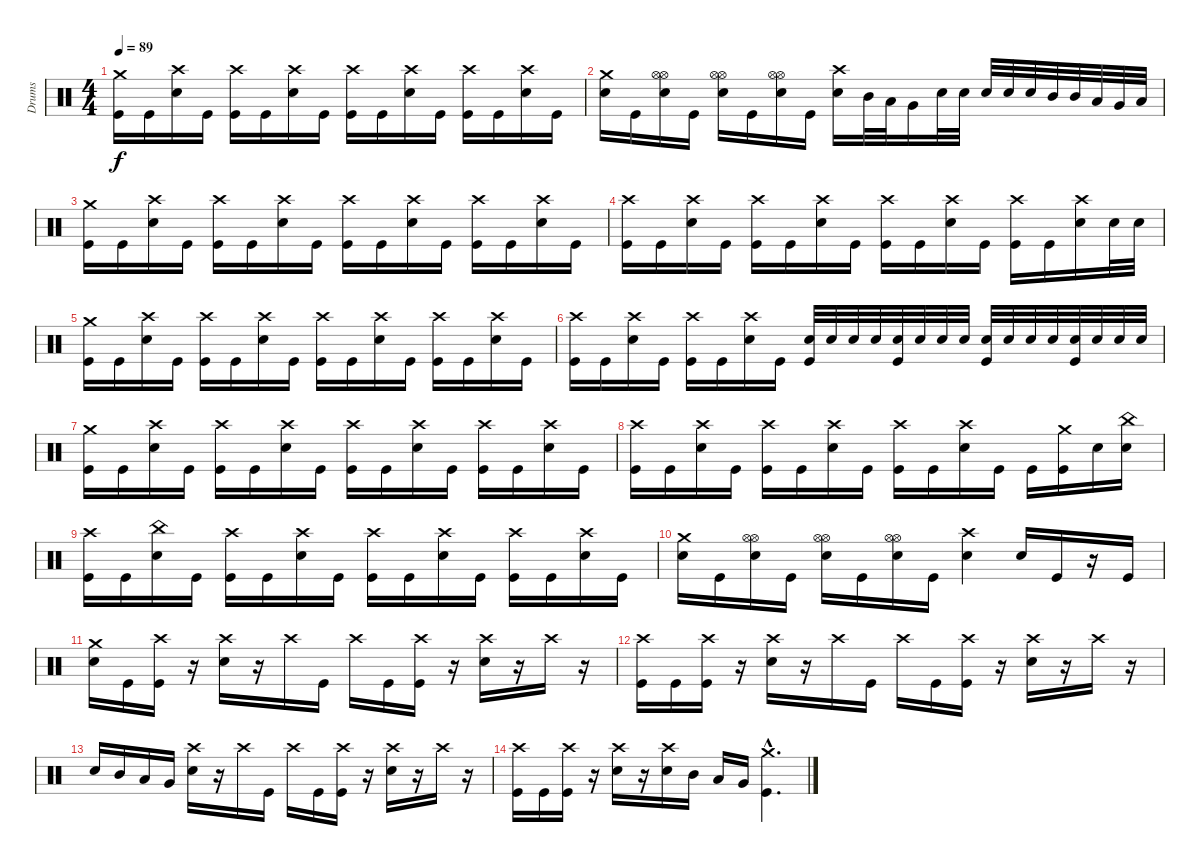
\track ("Drums" "Drums") {instrument percussion}
\staff {score}
\articulation defaults
\ts (4 4)
\tempo 89
\clef neutral
\ks c
("Crash medium (hit)" "Kick (hit)").16{dy f} "Kick (hit)".16 ("Crash high (hit)" "Electric Snare (hit)").16 "Kick (hit)".16 ("Crash high (hit)" "Kick (hit)").16 "Kick (hit)".16 ("Crash high (hit)" "Electric Snare (hit)").16 "Kick (hit)".16 ("Crash high (hit)" "Kick (hit)").16 "Kick (hit)".16 ("Crash high (hit)" "Electric Snare (hit)").16 "Kick (hit)".16 ("Crash high (hit)" "Kick (hit)").16 "Kick (hit)".16 ("Crash high (hit)" "Electric Snare (hit)").16 "Kick (hit)".16 |
("Crash medium (hit)" "Snare (hit) 2").16 "Kick (hit)".16 ("Hi-Hat (open)" "Electric Snare (hit)" "Hi-Hat (open)").16 "Kick (hit)".16 ("Hi-Hat (open)" "Electric Snare (hit)" "Hi-Hat (open)").16 "Kick (hit)".16 ("Hi-Hat (open)" "Electric Snare (hit)" "Hi-Hat (open)").16 "Kick (hit)".16 ("Crash high (hit)" "Electric Snare (hit)").16 "Mid Tom (hit)".32 "Low Tom (hit)".32 "Very Low Tom (hit)".16 "Electric Snare (hit)".32 "Electric Snare (hit)".32 "Electric Snare (hit)".32 "Electric Snare (hit)".32 "Electric Snare (hit)".32 "Mid Tom (hit)".32 "Mid Tom (hit)".32 "Low Tom (hit)".32 "Very Low Tom (hit)".32 "Low Floor Tom (hit)".32 |
("Crash medium (hit)" "Kick (hit)").16 "Kick (hit)".16 ("Crash high (hit)" "Electric Snare (hit)").16 "Kick (hit)".16 ("Crash high (hit)" "Kick (hit)").16 "Kick (hit)".16 ("Crash high (hit)" "Electric Snare (hit)").16 "Kick (hit)".16 ("Crash high (hit)" "Kick (hit)").16 "Kick (hit)".16 ("Crash high (hit)" "Electric Snare (hit)").16 "Kick (hit)".16 ("Crash high (hit)" "Kick (hit)").16 "Kick (hit)".16 ("Crash high (hit)" "Electric Snare (hit)").16 "Kick (hit)".16 |
("Crash high (hit)" "Kick (hit)").16 "Kick (hit)".16 ("Crash high (hit)" "Electric Snare (hit)").16 "Kick (hit)".16 ("Crash high (hit)" "Kick (hit)").16 "Kick (hit)".16 ("Crash high (hit)" "Electric Snare (hit)").16 "Kick (hit)".16 ("Crash high (hit)" "Kick (hit)").16 "Kick (hit)".16 ("Crash high (hit)" "Electric Snare (hit)").16 "Kick (hit)".16 ("Crash high (hit)" "Kick (hit)").16 "Kick (hit)".16 ("Crash high (hit)" "Electric Snare (hit)").16 "Electric Snare (hit)".32 "Electric Snare (hit)".32 |
("Crash medium (hit)" "Kick (hit)").16 "Kick (hit)".16 ("Crash high (hit)" "Electric Snare (hit)").16 "Kick (hit)".16 ("Crash high (hit)" "Kick (hit)").16 "Kick (hit)".16 ("Crash high (hit)" "Electric Snare (hit)").16 "Kick (hit)".16 ("Crash high (hit)" "Kick (hit)").16 "Kick (hit)".16 ("Crash high (hit)" "Electric Snare (hit)").16 "Kick (hit)".16 ("Crash high (hit)" "Kick (hit)").16 "Kick (hit)".16 ("Crash high (hit)" "Electric Snare (hit)").16 "Kick (hit)".16 |
("Crash high (hit)" "Kick (hit)").16 "Kick (hit)".16 ("Crash high (hit)" "Electric Snare (hit)").16 "Kick (hit)".16 ("Crash high (hit)" "Kick (hit)").16 "Kick (hit)".16 ("Crash high (hit)" "Electric Snare (hit)").16 "Kick (hit)".16 ("Electric Snare (hit)" "Kick (hit)").32 "Electric Snare (hit)".32 "Electric Snare (hit)".32 "Electric Snare (hit)".32 ("Electric Snare (hit)" "Kick (hit)").32 "Electric Snare (hit)".32 "Electric Snare (hit)".32 "Electric Snare (hit)".32 ("Electric Snare (hit)" "Kick (hit)").32 "Electric Snare (hit)".32 "Electric Snare (hit)".32 "Electric Snare (hit)".32 ("Electric Snare (hit)" "Kick (hit)").32 "Electric Snare (hit)".32 "Electric Snare (hit)".32 "Electric Snare (hit)".32 |
("Crash medium (hit)" "Kick (hit)").16 "Kick (hit)".16 ("Crash high (hit)" "Electric Snare (hit)").16 "Kick (hit)".16 ("Crash high (hit)" "Kick (hit)").16 "Kick (hit)".16 ("Crash high (hit)" "Electric Snare (hit)").16 "Kick (hit)".16 ("Crash high (hit)" "Kick (hit)").16 "Kick (hit)".16 ("Crash high (hit)" "Electric Snare (hit)").16 "Kick (hit)".16 ("Crash high (hit)" "Kick (hit)").16 "Kick (hit)".16 ("Crash high (hit)" "Electric Snare (hit)").16 "Kick (hit)".16 |
("Crash high (hit)" "Kick (hit)").16 "Kick (hit)".16 ("Crash high (hit)" "Electric Snare (hit)").16 "Kick (hit)".16 ("Crash high (hit)" "Kick (hit)").16 "Kick (hit)".16 ("Crash high (hit)" "Electric Snare (hit)").16 "Kick (hit)".16 ("Crash high (hit)" "Kick (hit)").16 "Kick (hit)".16 ("Crash high (hit)" "Electric Snare (hit)").16 "Kick (hit)".16 "Kick (hit)".16 ("Crash medium (hit)" "Kick (hit)").16 "Snare (hit) 2".16 ("China (hit)" "Electric Snare (hit)").16 |
("Crash high (hit)" "Kick (hit)").16 "Kick (hit)".16 ("China (hit)" "Electric Snare (hit)").16 "Kick (hit)".16 ("Crash high (hit)" "Kick (hit)").16 "Kick (hit)".16 ("Crash high (hit)" "Electric Snare (hit)").16 "Kick (hit)".16 ("Crash high (hit)" "Kick (hit)").16 "Kick (hit)".16 ("Crash high (hit)" "Electric Snare (hit)").16 "Kick (hit)".16 ("Crash high (hit)" "Kick (hit)").16 "Kick (hit)".16 ("Crash high (hit)" "Electric Snare (hit)").16 "Kick (hit)".16 |
("Crash medium (hit)" "Snare (hit) 2").16 "Kick (hit)".16 ("Hi-Hat (open)" "Electric Snare (hit)" "Hi-Hat (open)").16 "Kick (hit)".16 ("Hi-Hat (open)" "Electric Snare (hit)" "Hi-Hat (open)").16 "Kick (hit)".16 ("Hi-Hat (open)" "Electric Snare (hit)" "Hi-Hat (open)").16 "Kick (hit)".16 ("Crash high (hit)" "Electric Snare (hit)").4 "Electric Snare (hit)".16 "Kick (hit)".16 r.16 "Kick (hit)".16 |
("Crash medium (hit)" "Electric Snare (hit)").16 "Kick (hit)".16 ("Crash high (hit)" "Kick (hit)").16 r.16 ("Crash high (hit)" "Electric Snare (hit)").16 r.16 "Crash high (hit)".16 "Kick (hit)".16 "Crash high (hit)".16 "Kick (hit)".16 ("Crash high (hit)" "Kick (hit)").16 r.16 ("Crash high (hit)" "Electric Snare (hit)").16 r.16 "Crash high (hit)".16 r.16 |
("Crash high (hit)" "Kick (hit)").16 "Kick (hit)".16 ("Crash high (hit)" "Kick (hit)").16 r.16 ("Crash high (hit)" "Electric Snare (hit)").16 r.16 "Crash high (hit)".16 "Kick (hit)".16 "Crash high (hit)".16 "Kick (hit)".16 ("Crash high (hit)" "Kick (hit)").16 r.16 ("Crash high (hit)" "Electric Snare (hit)").16 r.16 "Crash high (hit)".16 r.16 |
"Electric Snare (hit)".16 "Mid Tom (hit)".16 "Low Tom (hit)".16 "Very Low Tom (hit)".16 ("Crash high (hit)" "Electric Snare (hit)").16 r.16 "Crash high (hit)".16 "Kick (hit)".16 "Crash high (hit)".16 "Kick (hit)".16 ("Crash high (hit)" "Kick (hit)").16 r.16 ("Crash high (hit)" "Electric Snare (hit)").16 r.16 "Crash high (hit)".16 r.16 |
("Crash high (hit)" "Kick (hit)").16 "Kick (hit)".16 ("Crash high (hit)" "Kick (hit)").16 r.16 ("Crash high (hit)" "Electric Snare (hit)").16 r.16 ("Crash high (hit)" "Electric Snare (hit)").16 "Mid Tom (hit)".16 "Low Tom (hit)".16 "Very Low Tom (hit)".16 ("Crash medium (hit)"{hac} "Kick (hit)"{hac}).4{d}
